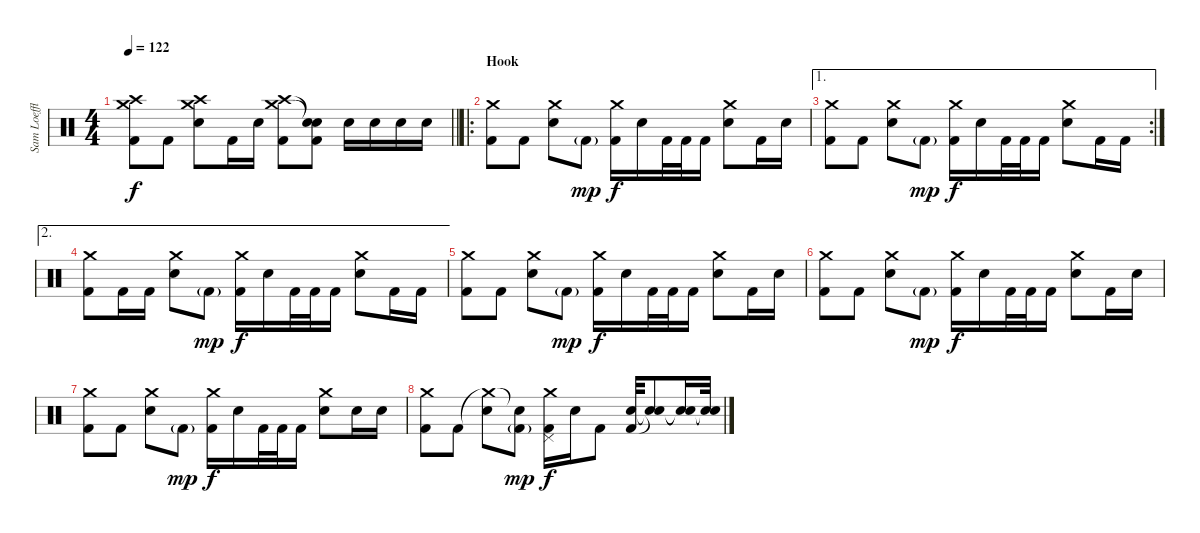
\track ("Sam Loeffler- Drums" "Sam Loeffl") {instrument percussion}
\staff {score}
\articulation defaults
\ts (4 4)
\tempo 122
\clef neutral
\barLineRight lightlight
\ks c
("Crash medium (hit)" "Crash high (hit)" "Kick (hit) 2").8{dy f} "Kick (hit) 2".8 ("Crash medium (hit)" "Crash high (hit)" "Electric Snare (hit)").8 "Kick (hit) 2".16 "Electric Snare (hit)".16 ("Crash medium (hit)" "Crash high (hit)" "Kick (hit) 2").8 ("Snare (hit)"{t} "Snare (hit)"{t} "Kick (hit) 2").8 "Electric Snare (hit)".16 "Electric Snare (hit)".16 "Electric Snare (hit)".16 "Electric Snare (hit)".16 |
\ro
\section ("" "Hook")
("Crash medium (hit)" "Kick (hit) 2").8 "Kick (hit) 2".8 ("Crash medium (hit)" "Electric Snare (hit)").8 "Kick (hit) 2"{g}.8{dy mp} ("Crash medium (hit)" "Kick (hit) 2").16{dy f} "Electric Snare (hit)".16 "Kick (hit) 2".32 "Kick (hit) 2".32 "Kick (hit) 2".16 ("Crash medium (hit)" "Electric Snare (hit)").8 "Kick (hit) 2".16 "Electric Snare (hit)".16 |
\ae 1
\rc 2
("Crash medium (hit)" "Kick (hit) 2").8 "Kick (hit) 2".8 ("Crash medium (hit)" "Electric Snare (hit)").8 "Kick (hit) 2"{g}.8{dy mp} ("Crash medium (hit)" "Kick (hit) 2").16{dy f} "Electric Snare (hit)".16 "Kick (hit) 2".32 "Kick (hit) 2".32 "Kick (hit) 2".16 ("Crash medium (hit)" "Electric Snare (hit)").8 "Kick (hit) 2".16 "Kick (hit) 2".16 |
\ae 2
("Crash medium (hit)" "Kick (hit) 2").8 "Kick (hit) 2".16 "Kick (hit) 2".16 ("Crash medium (hit)" "Electric Snare (hit)").8 "Kick (hit) 2"{g}.8{dy mp} ("Crash medium (hit)" "Kick (hit) 2").16{dy f} "Electric Snare (hit)".16 "Kick (hit) 2".32 "Kick (hit) 2".32 "Kick (hit) 2".16 ("Crash medium (hit)" "Electric Snare (hit)").8 "Kick (hit) 2".16 "Kick (hit) 2".16 |
("Crash medium (hit)" "Kick (hit) 2").8 "Kick (hit) 2".8 ("Crash medium (hit)" "Electric Snare (hit)").8 "Kick (hit) 2"{g}.8{dy mp} ("Crash medium (hit)" "Kick (hit) 2").16{dy f} "Electric Snare (hit)".16 "Kick (hit) 2".32 "Kick (hit) 2".32 "Kick (hit) 2".16 ("Crash medium (hit)" "Electric Snare (hit)").8 "Kick (hit) 2".16 "Electric Snare (hit)".16 |
("Crash medium (hit)" "Kick (hit) 2").8 "Kick (hit) 2".8 ("Crash medium (hit)" "Electric Snare (hit)").8 "Kick (hit) 2"{g}.8{dy mp} ("Crash medium (hit)" "Kick (hit) 2").16{dy f} "Electric Snare (hit)".16 "Kick (hit) 2".32 "Kick (hit) 2".32 "Kick (hit) 2".16 ("Crash medium (hit)" "Electric Snare (hit)").8 "Kick (hit) 2".16 "Electric Snare (hit)".16 |
("Crash medium (hit)" "Kick (hit) 2").8 "Kick (hit) 2".8 ("Crash medium (hit)" "Electric Snare (hit)").8 "Kick (hit) 2"{g}.8{dy mp} ("Crash medium (hit)" "Kick (hit) 2").16{dy f} "Electric Snare (hit)".16 "Kick (hit) 2".32 "Kick (hit) 2".32 "Kick (hit) 2".16 ("Crash medium (hit)" "Electric Snare (hit)").8 "Electric Snare (hit)".16 "Electric Snare (hit)".16 |
("Crash medium (hit)" "Kick (hit) 2").8 "Kick (hit) 2".8 ("Crash medium (hit)"{t} "Electric Snare (hit)").8 ("Snare (hit)"{t} "Kick (hit) 2"{g}).8{dy mp} ("Crash medium (hit)" "Pedal Hi-Hat (hit)" "Kick (hit) 2").16{dy f} "Electric Snare (hit)".16 "Kick (hit) 2".8 ("Electric Snare (hit)" "Kick (hit) 2").32 ("Snare (hit)"{t} "Snare (hit)"{t}).8 ("Snare (hit)"{t} "Snare (hit)"{t}).16 ("Snare (hit)"{t} "Snare (hit)"{t}).32
